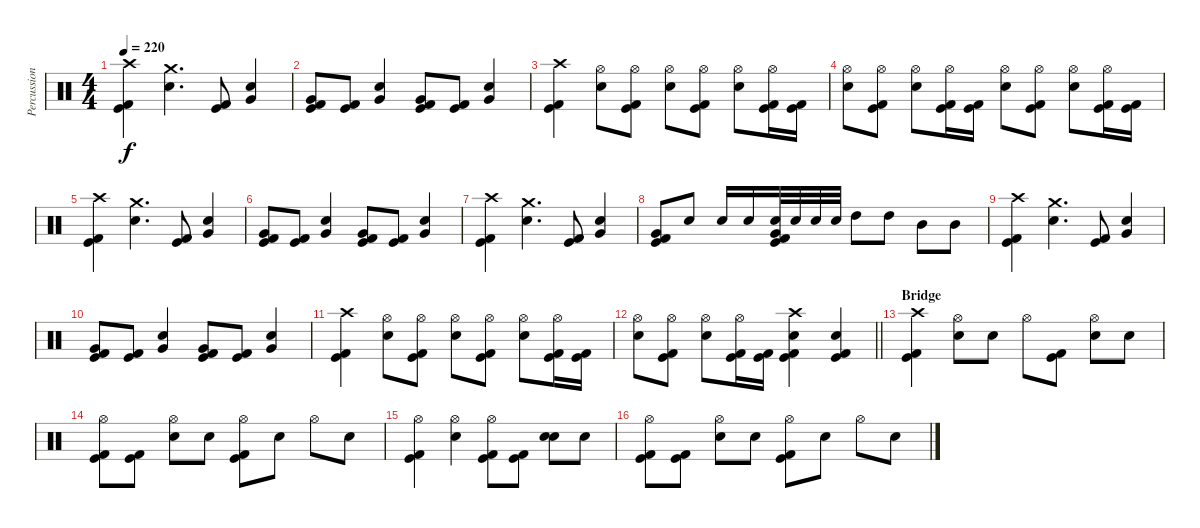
\track ("Percussion" "Percussion") {instrument percussion}
\staff {score}
\articulation defaults
\ts (4 4)
\tempo 220
\clef neutral
\ks c
("Crash high (hit)" "Kick (hit)" "Kick (hit) 2").4{dy f} ("Crash medium (hit)" "Electric Snare (hit)").4{d} ("Kick (hit)" "Kick (hit) 2").8 ("Very Low Tom (hit)" "Electric Snare (hit)").4 |
("Very Low Tom (hit)" "Kick (hit)" "Kick (hit) 2").8 ("Kick (hit)" "Kick (hit) 2").8 ("Very Low Tom (hit)" "Electric Snare (hit)").4 ("Very Low Tom (hit)" "Kick (hit)" "Kick (hit) 2").8 ("Kick (hit)" "Kick (hit) 2").8 ("Very Low Tom (hit)" "Electric Snare (hit)").4 |
("Crash high (hit)" "Kick (hit)" "Kick (hit) 2").4 ("Hi-Hat (open)" "Electric Snare (hit)").8 ("Hi-Hat (open)" "Kick (hit)" "Kick (hit) 2").8 ("Hi-Hat (open)" "Electric Snare (hit)").8 ("Hi-Hat (open)" "Kick (hit)" "Kick (hit) 2").8 ("Hi-Hat (open)" "Electric Snare (hit)").8 ("Hi-Hat (open)" "Kick (hit)" "Kick (hit) 2").16 ("Kick (hit)" "Kick (hit) 2").16 |
("Hi-Hat (open)" "Electric Snare (hit)").8 ("Hi-Hat (open)" "Kick (hit)" "Kick (hit) 2").8 ("Hi-Hat (open)" "Electric Snare (hit)").8 ("Hi-Hat (open)" "Kick (hit)" "Kick (hit) 2").16 ("Kick (hit)" "Kick (hit) 2").16 ("Hi-Hat (open)" "Electric Snare (hit)").8 ("Hi-Hat (open)" "Kick (hit)" "Kick (hit) 2").8 ("Hi-Hat (open)" "Electric Snare (hit)").8 ("Hi-Hat (open)" "Kick (hit)" "Kick (hit) 2").16 ("Kick (hit)" "Kick (hit) 2").16 |
("Crash high (hit)" "Kick (hit)" "Kick (hit) 2").4 ("Crash medium (hit)" "Electric Snare (hit)").4{d} ("Kick (hit)" "Kick (hit) 2").8 ("Very Low Tom (hit)" "Electric Snare (hit)").4 |
("Very Low Tom (hit)" "Kick (hit)" "Kick (hit) 2").8 ("Kick (hit)" "Kick (hit) 2").8 ("Very Low Tom (hit)" "Electric Snare (hit)").4 ("Very Low Tom (hit)" "Kick (hit)" "Kick (hit) 2").8 ("Kick (hit)" "Kick (hit) 2").8 ("Very Low Tom (hit)" "Electric Snare (hit)").4 |
("Crash high (hit)" "Kick (hit)" "Kick (hit) 2").4 ("Crash medium (hit)" "Electric Snare (hit)").4{d} ("Kick (hit)" "Kick (hit) 2").8 ("Very Low Tom (hit)" "Electric Snare (hit)").4 |
("Very Low Tom (hit)" "Kick (hit)" "Kick (hit) 2").8 "Electric Snare (hit)".8 "Electric Snare (hit)".16 "Electric Snare (hit)".16 ("Very Low Tom (hit)" "Electric Snare (hit)" "Kick (hit)" "Kick (hit) 2").32 "Electric Snare (hit)".32 "Electric Snare (hit)".32 "Electric Snare (hit)".32 "High Tom (hit)".8 "High Tom (hit)".8 "Mid Tom (hit)".8 "Mid Tom (hit)".8 |
("Crash high (hit)" "Kick (hit)" "Kick (hit) 2").4 ("Crash medium (hit)" "Electric Snare (hit)").4{d} ("Kick (hit)" "Kick (hit) 2").8 ("Very Low Tom (hit)" "Electric Snare (hit)").4 |
("Very Low Tom (hit)" "Kick (hit)" "Kick (hit) 2").8 ("Kick (hit)" "Kick (hit) 2").8 ("Very Low Tom (hit)" "Electric Snare (hit)").4 ("Very Low Tom (hit)" "Kick (hit)" "Kick (hit) 2").8 ("Kick (hit)" "Kick (hit) 2").8 ("Very Low Tom (hit)" "Electric Snare (hit)").4 |
("Crash high (hit)" "Kick (hit)" "Kick (hit) 2").4 ("Hi-Hat (open)" "Electric Snare (hit)").8 ("Hi-Hat (open)" "Kick (hit)" "Kick (hit) 2").8 ("Hi-Hat (open)" "Electric Snare (hit)").8 ("Hi-Hat (open)" "Kick (hit)" "Kick (hit) 2").8 ("Hi-Hat (open)" "Electric Snare (hit)").8 ("Hi-Hat (open)" "Kick (hit)" "Kick (hit) 2").16 ("Kick (hit)" "Kick (hit) 2").16 |
\barLineRight lightlight
("Hi-Hat (open)" "Electric Snare (hit)").8 ("Hi-Hat (open)" "Kick (hit)" "Kick (hit) 2").8 ("Hi-Hat (open)" "Electric Snare (hit)").8 ("Hi-Hat (open)" "Kick (hit)" "Kick (hit) 2").16 ("Kick (hit)" "Kick (hit) 2").16 ("Crash high (hit)" "Electric Snare (hit)" "Kick (hit) 2" "Kick (hit)").4 ("Electric Snare (hit)" "Kick (hit)" "Kick (hit) 2").4 |
\section ("" "Bridge")
("Crash high (hit)" "Kick (hit)" "Kick (hit) 2").4 ("Hi-Hat (open)" "Electric Snare (hit)").8 "Electric Snare (hit)".8 "Hi-Hat (open)".8 ("Kick (hit)" "Kick (hit) 2").8 ("Hi-Hat (open)" "Electric Snare (hit)").8 "Electric Snare (hit)".8 |
("Hi-Hat (open)" "Kick (hit)" "Kick (hit) 2").8 ("Kick (hit)" "Kick (hit) 2").8 ("Hi-Hat (open)" "Electric Snare (hit)").8 "Electric Snare (hit)".8 ("Hi-Hat (open)" "Kick (hit)" "Kick (hit) 2").8 "Electric Snare (hit)".8 "Hi-Hat (open)".8 "Electric Snare (hit)".8 |
("Hi-Hat (open)" "Kick (hit)" "Kick (hit) 2").4 ("Hi-Hat (open)" "Electric Snare (hit)").4 ("Hi-Hat (open)" "Kick (hit)" "Kick (hit) 2").8 ("Kick (hit)" "Kick (hit) 2").8 ("Electric Snare (hit)" "Electric Snare (hit)").8 "Electric Snare (hit)".8 |
("Hi-Hat (open)" "Kick (hit)" "Kick (hit) 2").8 ("Kick (hit)" "Kick (hit) 2").8 ("Hi-Hat (open)" "Electric Snare (hit)").8 "Electric Snare (hit)".8 ("Hi-Hat (open)" "Kick (hit)" "Kick (hit) 2").8 "Electric Snare (hit)".8 "Hi-Hat (open)".8 "Electric Snare (hit)".8
